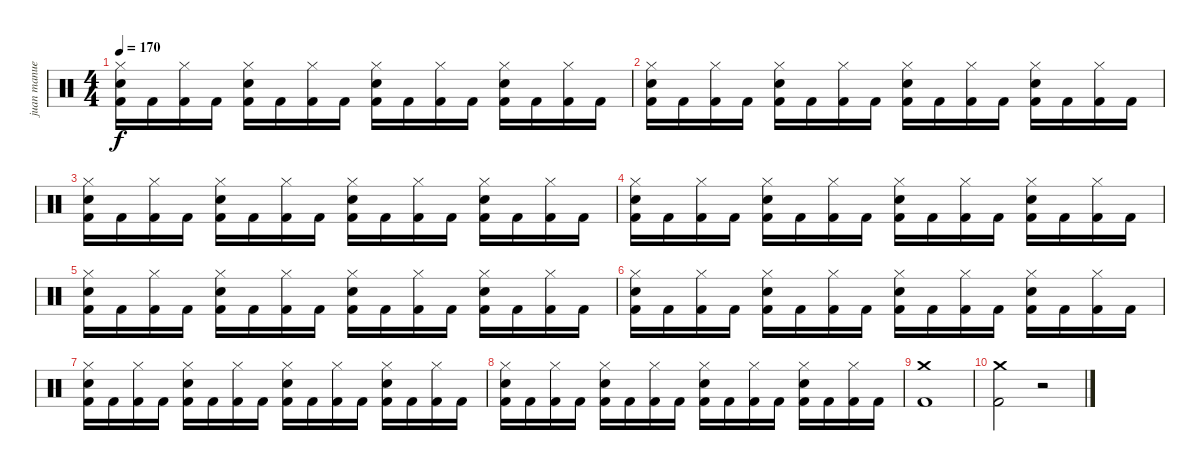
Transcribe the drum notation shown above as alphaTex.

\track ("juan manuel" "juan manue") {instrument percussion}
\staff {score}
\articulation defaults
\ts (4 4)
\tempo 170
\clef neutral
\ks c
("Hi-Hat (closed)" "Electric Snare (hit)" "Kick (hit) 2").16{dy f} "Kick (hit) 2".16 ("Hi-Hat (closed)" "Kick (hit) 2").16 "Kick (hit) 2".16 ("Hi-Hat (closed)" "Electric Snare (hit)" "Kick (hit) 2").16 "Kick (hit) 2".16 ("Hi-Hat (closed)" "Kick (hit) 2").16 "Kick (hit) 2".16 ("Hi-Hat (closed)" "Electric Snare (hit)" "Kick (hit) 2").16 "Kick (hit) 2".16 ("Hi-Hat (closed)" "Kick (hit) 2").16 "Kick (hit) 2".16 ("Hi-Hat (closed)" "Electric Snare (hit)" "Kick (hit) 2").16 "Kick (hit) 2".16 ("Hi-Hat (closed)" "Kick (hit) 2").16 "Kick (hit) 2".16 |
("Hi-Hat (closed)" "Electric Snare (hit)" "Kick (hit) 2").16 "Kick (hit) 2".16 ("Hi-Hat (closed)" "Kick (hit) 2").16 "Kick (hit) 2".16 ("Hi-Hat (closed)" "Electric Snare (hit)" "Kick (hit) 2").16 "Kick (hit) 2".16 ("Hi-Hat (closed)" "Kick (hit) 2").16 "Kick (hit) 2".16 ("Hi-Hat (closed)" "Electric Snare (hit)" "Kick (hit) 2").16 "Kick (hit) 2".16 ("Hi-Hat (closed)" "Kick (hit) 2").16 "Kick (hit) 2".16 ("Hi-Hat (closed)" "Electric Snare (hit)" "Kick (hit) 2").16 "Kick (hit) 2".16 ("Hi-Hat (closed)" "Kick (hit) 2").16 "Kick (hit) 2".16 |
("Hi-Hat (closed)" "Electric Snare (hit)" "Kick (hit) 2").16 "Kick (hit) 2".16 ("Hi-Hat (closed)" "Kick (hit) 2").16 "Kick (hit) 2".16 ("Hi-Hat (closed)" "Electric Snare (hit)" "Kick (hit) 2").16 "Kick (hit) 2".16 ("Hi-Hat (closed)" "Kick (hit) 2").16 "Kick (hit) 2".16 ("Hi-Hat (closed)" "Electric Snare (hit)" "Kick (hit) 2").16 "Kick (hit) 2".16 ("Hi-Hat (closed)" "Kick (hit) 2").16 "Kick (hit) 2".16 ("Hi-Hat (closed)" "Electric Snare (hit)" "Kick (hit) 2").16 "Kick (hit) 2".16 ("Hi-Hat (closed)" "Kick (hit) 2").16 "Kick (hit) 2".16 |
("Hi-Hat (closed)" "Electric Snare (hit)" "Kick (hit) 2").16 "Kick (hit) 2".16 ("Hi-Hat (closed)" "Kick (hit) 2").16 "Kick (hit) 2".16 ("Hi-Hat (closed)" "Electric Snare (hit)" "Kick (hit) 2").16 "Kick (hit) 2".16 ("Hi-Hat (closed)" "Kick (hit) 2").16 "Kick (hit) 2".16 ("Hi-Hat (closed)" "Electric Snare (hit)" "Kick (hit) 2").16 "Kick (hit) 2".16 ("Hi-Hat (closed)" "Kick (hit) 2").16 "Kick (hit) 2".16 ("Hi-Hat (closed)" "Electric Snare (hit)" "Kick (hit) 2").16 "Kick (hit) 2".16 ("Hi-Hat (closed)" "Kick (hit) 2").16 "Kick (hit) 2".16 |
("Hi-Hat (closed)" "Electric Snare (hit)" "Kick (hit) 2").16 "Kick (hit) 2".16 ("Hi-Hat (closed)" "Kick (hit) 2").16 "Kick (hit) 2".16 ("Hi-Hat (closed)" "Electric Snare (hit)" "Kick (hit) 2").16 "Kick (hit) 2".16 ("Hi-Hat (closed)" "Kick (hit) 2").16 "Kick (hit) 2".16 ("Hi-Hat (closed)" "Electric Snare (hit)" "Kick (hit) 2").16 "Kick (hit) 2".16 ("Hi-Hat (closed)" "Kick (hit) 2").16 "Kick (hit) 2".16 ("Hi-Hat (closed)" "Electric Snare (hit)" "Kick (hit) 2").16 "Kick (hit) 2".16 ("Hi-Hat (closed)" "Kick (hit) 2").16 "Kick (hit) 2".16 |
("Hi-Hat (closed)" "Electric Snare (hit)" "Kick (hit) 2").16 "Kick (hit) 2".16 ("Hi-Hat (closed)" "Kick (hit) 2").16 "Kick (hit) 2".16 ("Hi-Hat (closed)" "Electric Snare (hit)" "Kick (hit) 2").16 "Kick (hit) 2".16 ("Hi-Hat (closed)" "Kick (hit) 2").16 "Kick (hit) 2".16 ("Hi-Hat (closed)" "Electric Snare (hit)" "Kick (hit) 2").16 "Kick (hit) 2".16 ("Hi-Hat (closed)" "Kick (hit) 2").16 "Kick (hit) 2".16 ("Hi-Hat (closed)" "Electric Snare (hit)" "Kick (hit) 2").16 "Kick (hit) 2".16 ("Hi-Hat (closed)" "Kick (hit) 2").16 "Kick (hit) 2".16 |
("Hi-Hat (closed)" "Electric Snare (hit)" "Kick (hit) 2").16 "Kick (hit) 2".16 ("Hi-Hat (closed)" "Kick (hit) 2").16 "Kick (hit) 2".16 ("Hi-Hat (closed)" "Electric Snare (hit)" "Kick (hit) 2").16 "Kick (hit) 2".16 ("Hi-Hat (closed)" "Kick (hit) 2").16 "Kick (hit) 2".16 ("Hi-Hat (closed)" "Electric Snare (hit)" "Kick (hit) 2").16 "Kick (hit) 2".16 ("Hi-Hat (closed)" "Kick (hit) 2").16 "Kick (hit) 2".16 ("Hi-Hat (closed)" "Electric Snare (hit)" "Kick (hit) 2").16 "Kick (hit) 2".16 ("Hi-Hat (closed)" "Kick (hit) 2").16 "Kick (hit) 2".16 |
("Hi-Hat (closed)" "Electric Snare (hit)" "Kick (hit) 2").16 "Kick (hit) 2".16 ("Hi-Hat (closed)" "Kick (hit) 2").16 "Kick (hit) 2".16 ("Hi-Hat (closed)" "Electric Snare (hit)" "Kick (hit) 2").16 "Kick (hit) 2".16 ("Hi-Hat (closed)" "Kick (hit) 2").16 "Kick (hit) 2".16 ("Hi-Hat (closed)" "Electric Snare (hit)" "Kick (hit) 2").16 "Kick (hit) 2".16 ("Hi-Hat (closed)" "Kick (hit) 2").16 "Kick (hit) 2".16 ("Hi-Hat (closed)" "Electric Snare (hit)" "Kick (hit) 2").16 "Kick (hit) 2".16 ("Hi-Hat (closed)" "Kick (hit) 2").16 "Kick (hit) 2".16 |
("Crash medium (hit)" "Kick (hit) 2").1 |
("Crash medium (hit)" "Kick (hit) 2").2 r.2
